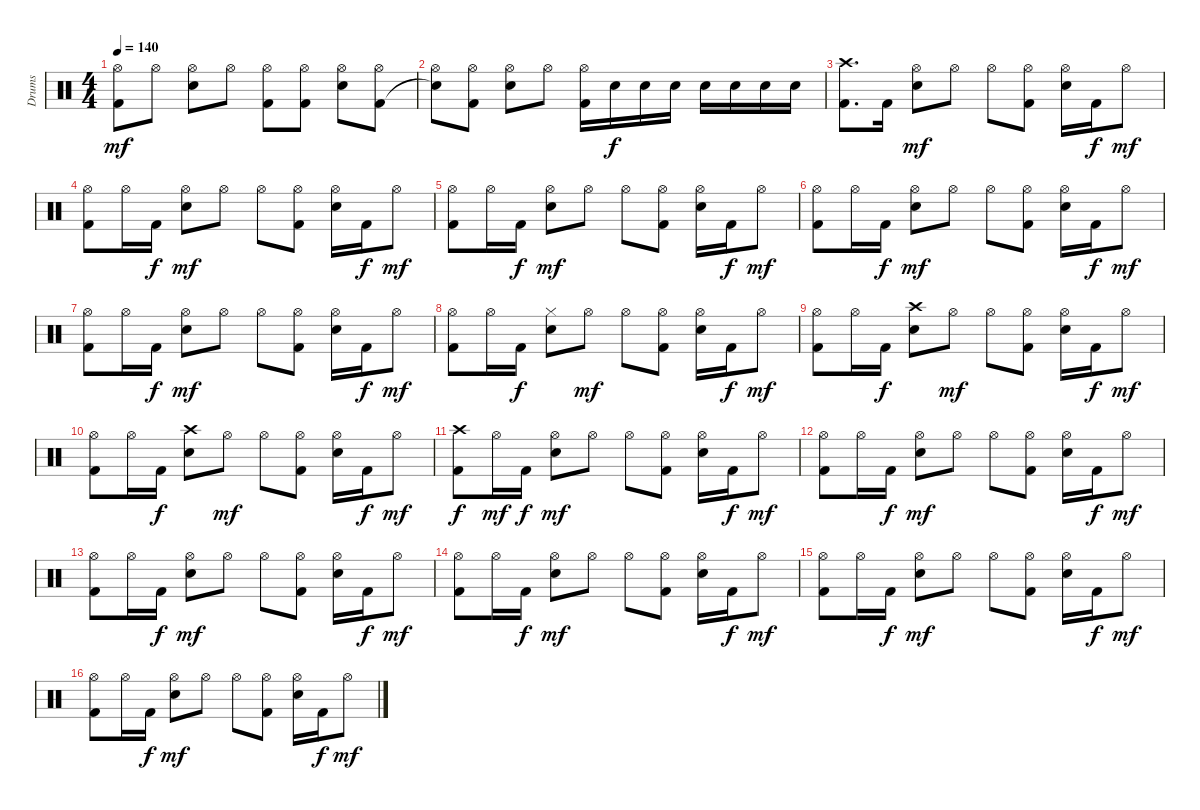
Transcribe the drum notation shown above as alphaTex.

\track ("Drums" "Drums") {instrument percussion}
\staff {score}
\articulation defaults
\ts (4 4)
\tempo 140
\clef neutral
\ks c
("Hi-Hat (open)" "Kick (hit) 2").8{dy mf} "Hi-Hat (open)".8 ("Hi-Hat (open)" "Electric Snare (hit)").8 "Hi-Hat (open)".8 ("Hi-Hat (open)" "Kick (hit) 2").8 ("Hi-Hat (open)" "Kick (hit) 2").8 ("Hi-Hat (open)" "Electric Snare (hit)").8 ("Hi-Hat (open)" "Kick (hit) 2").8 |
("Hi-Hat (open)" "Snare (hit)"{t}).8 ("Hi-Hat (open)" "Kick (hit) 2").8 ("Hi-Hat (open)" "Electric Snare (hit)").8 "Hi-Hat (open)".8 ("Hi-Hat (open)" "Kick (hit) 2").16 "Electric Snare (hit)".16{dy f} "Electric Snare (hit)".16 "Electric Snare (hit)".16 "Electric Snare (hit)".16 "Electric Snare (hit)".16 "Electric Snare (hit)".16 "Electric Snare (hit)".16 |
("Crash high (hit)" "Kick (hit) 2").8{d} "Kick (hit) 2".16 ("Hi-Hat (open)" "Electric Snare (hit)").8{dy mf} "Hi-Hat (open)".8 "Hi-Hat (open)".8 ("Hi-Hat (open)" "Kick (hit) 2").8 ("Hi-Hat (open)" "Electric Snare (hit)").16 "Kick (hit) 2".16{dy f} "Hi-Hat (open)".8{dy mf} |
("Hi-Hat (open)" "Kick (hit) 2").8 "Hi-Hat (open)".16 "Kick (hit) 2".16{dy f} ("Hi-Hat (open)" "Electric Snare (hit)").8{dy mf} "Hi-Hat (open)".8 "Hi-Hat (open)".8 ("Hi-Hat (open)" "Kick (hit) 2").8 ("Hi-Hat (open)" "Electric Snare (hit)").16 "Kick (hit) 2".16{dy f} "Hi-Hat (open)".8{dy mf} |
("Hi-Hat (open)" "Kick (hit) 2").8 "Hi-Hat (open)".16 "Kick (hit) 2".16{dy f} ("Hi-Hat (open)" "Electric Snare (hit)").8{dy mf} "Hi-Hat (open)".8 "Hi-Hat (open)".8 ("Hi-Hat (open)" "Kick (hit) 2").8 ("Hi-Hat (open)" "Electric Snare (hit)").16 "Kick (hit) 2".16{dy f} "Hi-Hat (open)".8{dy mf} |
("Hi-Hat (open)" "Kick (hit) 2").8 "Hi-Hat (open)".16 "Kick (hit) 2".16{dy f} ("Hi-Hat (open)" "Electric Snare (hit)").8{dy mf} "Hi-Hat (open)".8 "Hi-Hat (open)".8 ("Hi-Hat (open)" "Kick (hit) 2").8 ("Hi-Hat (open)" "Electric Snare (hit)").16 "Kick (hit) 2".16{dy f} "Hi-Hat (open)".8{dy mf} |
("Hi-Hat (open)" "Kick (hit) 2").8 "Hi-Hat (open)".16 "Kick (hit) 2".16{dy f} ("Hi-Hat (open)" "Electric Snare (hit)").8{dy mf} "Hi-Hat (open)".8 "Hi-Hat (open)".8 ("Hi-Hat (open)" "Kick (hit) 2").8 ("Hi-Hat (open)" "Electric Snare (hit)").16 "Kick (hit) 2".16{dy f} "Hi-Hat (open)".8{dy mf} |
("Hi-Hat (open)" "Kick (hit) 2").8 "Hi-Hat (open)".16 "Kick (hit) 2".16{dy f} ("Hi-Hat (closed)" "Electric Snare (hit)").8 "Hi-Hat (open)".8{dy mf} "Hi-Hat (open)".8 ("Hi-Hat (open)" "Kick (hit) 2").8 ("Hi-Hat (open)" "Electric Snare (hit)").16 "Kick (hit) 2".16{dy f} "Hi-Hat (open)".8{dy mf} |
("Hi-Hat (open)" "Kick (hit) 2").8 "Hi-Hat (open)".16 "Kick (hit) 2".16{dy f} ("Crash high (hit)" "Electric Snare (hit)").8 "Hi-Hat (open)".8{dy mf} "Hi-Hat (open)".8 ("Hi-Hat (open)" "Kick (hit) 2").8 ("Hi-Hat (open)" "Electric Snare (hit)").16 "Kick (hit) 2".16{dy f} "Hi-Hat (open)".8{dy mf} |
("Hi-Hat (open)" "Kick (hit) 2").8 "Hi-Hat (open)".16 "Kick (hit) 2".16{dy f} ("Crash high (hit)" "Electric Snare (hit)").8 "Hi-Hat (open)".8{dy mf} "Hi-Hat (open)".8 ("Hi-Hat (open)" "Kick (hit) 2").8 ("Hi-Hat (open)" "Electric Snare (hit)").16 "Kick (hit) 2".16{dy f} "Hi-Hat (open)".8{dy mf} |
("Crash high (hit)" "Kick (hit) 2").8{dy f} "Hi-Hat (open)".16{dy mf} "Kick (hit) 2".16{dy f} ("Hi-Hat (open)" "Electric Snare (hit)").8{dy mf} "Hi-Hat (open)".8 "Hi-Hat (open)".8 ("Hi-Hat (open)" "Kick (hit) 2").8 ("Hi-Hat (open)" "Electric Snare (hit)").16 "Kick (hit) 2".16{dy f} "Hi-Hat (open)".8{dy mf} |
("Hi-Hat (open)" "Kick (hit) 2").8 "Hi-Hat (open)".16 "Kick (hit) 2".16{dy f} ("Hi-Hat (open)" "Electric Snare (hit)").8{dy mf} "Hi-Hat (open)".8 "Hi-Hat (open)".8 ("Hi-Hat (open)" "Kick (hit) 2").8 ("Hi-Hat (open)" "Electric Snare (hit)").16 "Kick (hit) 2".16{dy f} "Hi-Hat (open)".8{dy mf} |
("Hi-Hat (open)" "Kick (hit) 2").8 "Hi-Hat (open)".16 "Kick (hit) 2".16{dy f} ("Hi-Hat (open)" "Electric Snare (hit)").8{dy mf} "Hi-Hat (open)".8 "Hi-Hat (open)".8 ("Hi-Hat (open)" "Kick (hit) 2").8 ("Hi-Hat (open)" "Electric Snare (hit)").16 "Kick (hit) 2".16{dy f} "Hi-Hat (open)".8{dy mf} |
("Hi-Hat (open)" "Kick (hit) 2").8 "Hi-Hat (open)".16 "Kick (hit) 2".16{dy f} ("Hi-Hat (open)" "Electric Snare (hit)").8{dy mf} "Hi-Hat (open)".8 "Hi-Hat (open)".8 ("Hi-Hat (open)" "Kick (hit) 2").8 ("Hi-Hat (open)" "Electric Snare (hit)").16 "Kick (hit) 2".16{dy f} "Hi-Hat (open)".8{dy mf} |
("Hi-Hat (open)" "Kick (hit) 2").8 "Hi-Hat (open)".16 "Kick (hit) 2".16{dy f} ("Hi-Hat (open)" "Electric Snare (hit)").8{dy mf} "Hi-Hat (open)".8 "Hi-Hat (open)".8 ("Hi-Hat (open)" "Kick (hit) 2").8 ("Hi-Hat (open)" "Electric Snare (hit)").16 "Kick (hit) 2".16{dy f} "Hi-Hat (open)".8{dy mf} |
("Hi-Hat (open)" "Kick (hit) 2").8 "Hi-Hat (open)".16 "Kick (hit) 2".16{dy f} ("Hi-Hat (open)" "Electric Snare (hit)").8{dy mf} "Hi-Hat (open)".8 "Hi-Hat (open)".8 ("Hi-Hat (open)" "Kick (hit) 2").8 ("Hi-Hat (open)" "Electric Snare (hit)").16 "Kick (hit) 2".16{dy f} "Hi-Hat (open)".8{dy mf}
